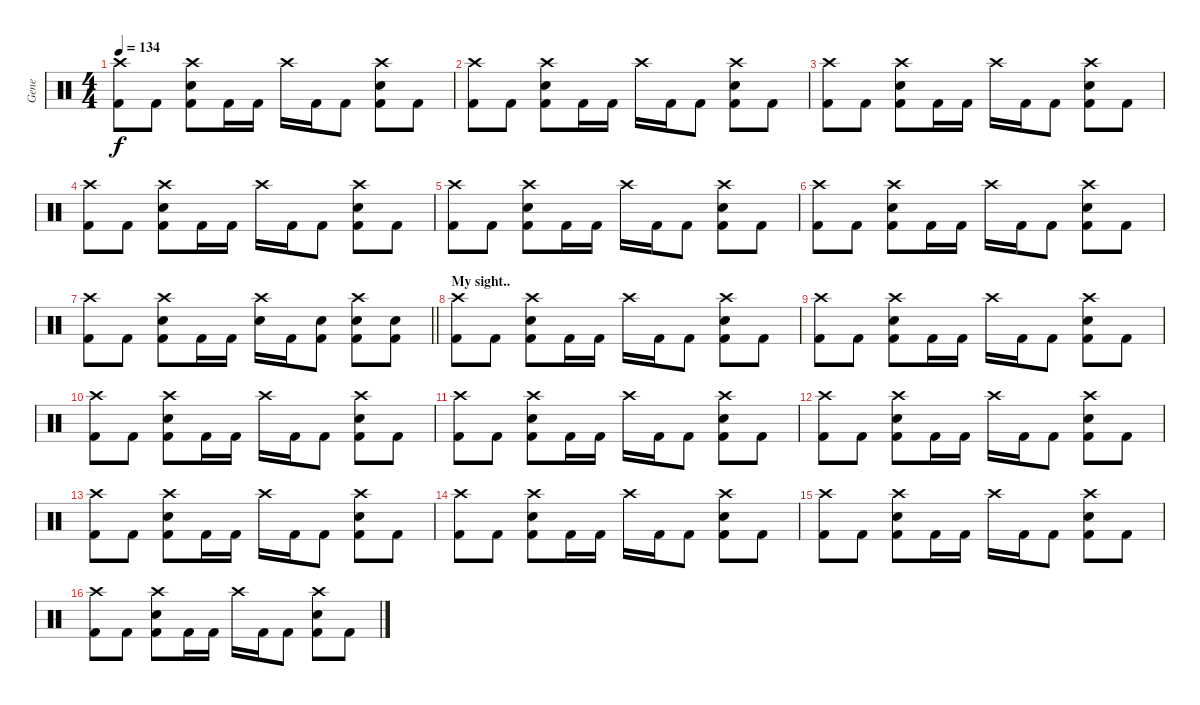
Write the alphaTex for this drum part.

\track ("Gene" "Gene") {instrument percussion}
\staff {score}
\articulation defaults
\ts (4 4)
\tempo 134
\clef neutral
\ks c
("Crash high (hit)" "Kick (hit) 2").8{dy f} "Kick (hit) 2".8 ("Electric Snare (hit)" "Crash high (hit)" "Kick (hit) 2").8 "Kick (hit) 2".16 "Kick (hit) 2".16 "Crash high (hit)".16 "Kick (hit) 2".16 "Kick (hit) 2".8 ("Crash high (hit)" "Electric Snare (hit)" "Kick (hit) 2").8 "Kick (hit) 2".8 |
("Crash high (hit)" "Kick (hit) 2").8 "Kick (hit) 2".8 ("Electric Snare (hit)" "Crash high (hit)" "Kick (hit) 2").8 "Kick (hit) 2".16 "Kick (hit) 2".16 "Crash high (hit)".16 "Kick (hit) 2".16 "Kick (hit) 2".8 ("Crash high (hit)" "Electric Snare (hit)" "Kick (hit) 2").8 "Kick (hit) 2".8 |
("Crash high (hit)" "Kick (hit) 2").8 "Kick (hit) 2".8 ("Electric Snare (hit)" "Crash high (hit)" "Kick (hit) 2").8 "Kick (hit) 2".16 "Kick (hit) 2".16 "Crash high (hit)".16 "Kick (hit) 2".16 "Kick (hit) 2".8 ("Crash high (hit)" "Electric Snare (hit)" "Kick (hit) 2").8 "Kick (hit) 2".8 |
("Crash high (hit)" "Kick (hit) 2").8 "Kick (hit) 2".8 ("Electric Snare (hit)" "Crash high (hit)" "Kick (hit) 2").8 "Kick (hit) 2".16 "Kick (hit) 2".16 "Crash high (hit)".16 "Kick (hit) 2".16 "Kick (hit) 2".8 ("Crash high (hit)" "Electric Snare (hit)" "Kick (hit) 2").8 "Kick (hit) 2".8 |
("Crash high (hit)" "Kick (hit) 2").8 "Kick (hit) 2".8 ("Electric Snare (hit)" "Crash high (hit)" "Kick (hit) 2").8 "Kick (hit) 2".16 "Kick (hit) 2".16 "Crash high (hit)".16 "Kick (hit) 2".16 "Kick (hit) 2".8 ("Crash high (hit)" "Electric Snare (hit)" "Kick (hit) 2").8 "Kick (hit) 2".8 |
("Crash high (hit)" "Kick (hit) 2").8 "Kick (hit) 2".8 ("Electric Snare (hit)" "Crash high (hit)" "Kick (hit) 2").8 "Kick (hit) 2".16 "Kick (hit) 2".16 "Crash high (hit)".16 "Kick (hit) 2".16 "Kick (hit) 2".8 ("Crash high (hit)" "Electric Snare (hit)" "Kick (hit) 2").8 "Kick (hit) 2".8 |
\barLineRight lightlight
("Crash high (hit)" "Kick (hit) 2").8 "Kick (hit) 2".8 ("Electric Snare (hit)" "Crash high (hit)" "Kick (hit) 2").8 "Kick (hit) 2".16 "Kick (hit) 2".16 ("Crash high (hit)" "Electric Snare (hit)").16 "Kick (hit) 2".16 ("Electric Snare (hit)" "Kick (hit) 2").8 ("Crash high (hit)" "Electric Snare (hit)" "Kick (hit) 2").8 ("Electric Snare (hit)" "Kick (hit) 2").8 |
\section ("" "My sight..")
("Crash high (hit)" "Kick (hit) 2").8 "Kick (hit) 2".8 ("Electric Snare (hit)" "Crash high (hit)" "Kick (hit) 2").8 "Kick (hit) 2".16 "Kick (hit) 2".16 "Crash high (hit)".16 "Kick (hit) 2".16 "Kick (hit) 2".8 ("Crash high (hit)" "Electric Snare (hit)" "Kick (hit) 2").8 "Kick (hit) 2".8 |
("Crash high (hit)" "Kick (hit) 2").8 "Kick (hit) 2".8 ("Electric Snare (hit)" "Crash high (hit)" "Kick (hit) 2").8 "Kick (hit) 2".16 "Kick (hit) 2".16 "Crash high (hit)".16 "Kick (hit) 2".16 "Kick (hit) 2".8 ("Crash high (hit)" "Electric Snare (hit)" "Kick (hit) 2").8 "Kick (hit) 2".8 |
("Crash high (hit)" "Kick (hit) 2").8 "Kick (hit) 2".8 ("Electric Snare (hit)" "Crash high (hit)" "Kick (hit) 2").8 "Kick (hit) 2".16 "Kick (hit) 2".16 "Crash high (hit)".16 "Kick (hit) 2".16 "Kick (hit) 2".8 ("Crash high (hit)" "Electric Snare (hit)" "Kick (hit) 2").8 "Kick (hit) 2".8 |
("Crash high (hit)" "Kick (hit) 2").8 "Kick (hit) 2".8 ("Electric Snare (hit)" "Crash high (hit)" "Kick (hit) 2").8 "Kick (hit) 2".16 "Kick (hit) 2".16 "Crash high (hit)".16 "Kick (hit) 2".16 "Kick (hit) 2".8 ("Crash high (hit)" "Electric Snare (hit)" "Kick (hit) 2").8 "Kick (hit) 2".8 |
("Crash high (hit)" "Kick (hit) 2").8 "Kick (hit) 2".8 ("Electric Snare (hit)" "Crash high (hit)" "Kick (hit) 2").8 "Kick (hit) 2".16 "Kick (hit) 2".16 "Crash high (hit)".16 "Kick (hit) 2".16 "Kick (hit) 2".8 ("Crash high (hit)" "Electric Snare (hit)" "Kick (hit) 2").8 "Kick (hit) 2".8 |
("Crash high (hit)" "Kick (hit) 2").8 "Kick (hit) 2".8 ("Electric Snare (hit)" "Crash high (hit)" "Kick (hit) 2").8 "Kick (hit) 2".16 "Kick (hit) 2".16 "Crash high (hit)".16 "Kick (hit) 2".16 "Kick (hit) 2".8 ("Crash high (hit)" "Electric Snare (hit)" "Kick (hit) 2").8 "Kick (hit) 2".8 |
("Crash high (hit)" "Kick (hit) 2").8 "Kick (hit) 2".8 ("Electric Snare (hit)" "Crash high (hit)" "Kick (hit) 2").8 "Kick (hit) 2".16 "Kick (hit) 2".16 "Crash high (hit)".16 "Kick (hit) 2".16 "Kick (hit) 2".8 ("Crash high (hit)" "Electric Snare (hit)" "Kick (hit) 2").8 "Kick (hit) 2".8 |
("Crash high (hit)" "Kick (hit) 2").8 "Kick (hit) 2".8 ("Electric Snare (hit)" "Crash high (hit)" "Kick (hit) 2").8 "Kick (hit) 2".16 "Kick (hit) 2".16 "Crash high (hit)".16 "Kick (hit) 2".16 "Kick (hit) 2".8 ("Crash high (hit)" "Electric Snare (hit)" "Kick (hit) 2").8 "Kick (hit) 2".8 |
("Crash high (hit)" "Kick (hit) 2").8 "Kick (hit) 2".8 ("Electric Snare (hit)" "Crash high (hit)" "Kick (hit) 2").8 "Kick (hit) 2".16 "Kick (hit) 2".16 "Crash high (hit)".16 "Kick (hit) 2".16 "Kick (hit) 2".8 ("Crash high (hit)" "Electric Snare (hit)" "Kick (hit) 2").8 "Kick (hit) 2".8
